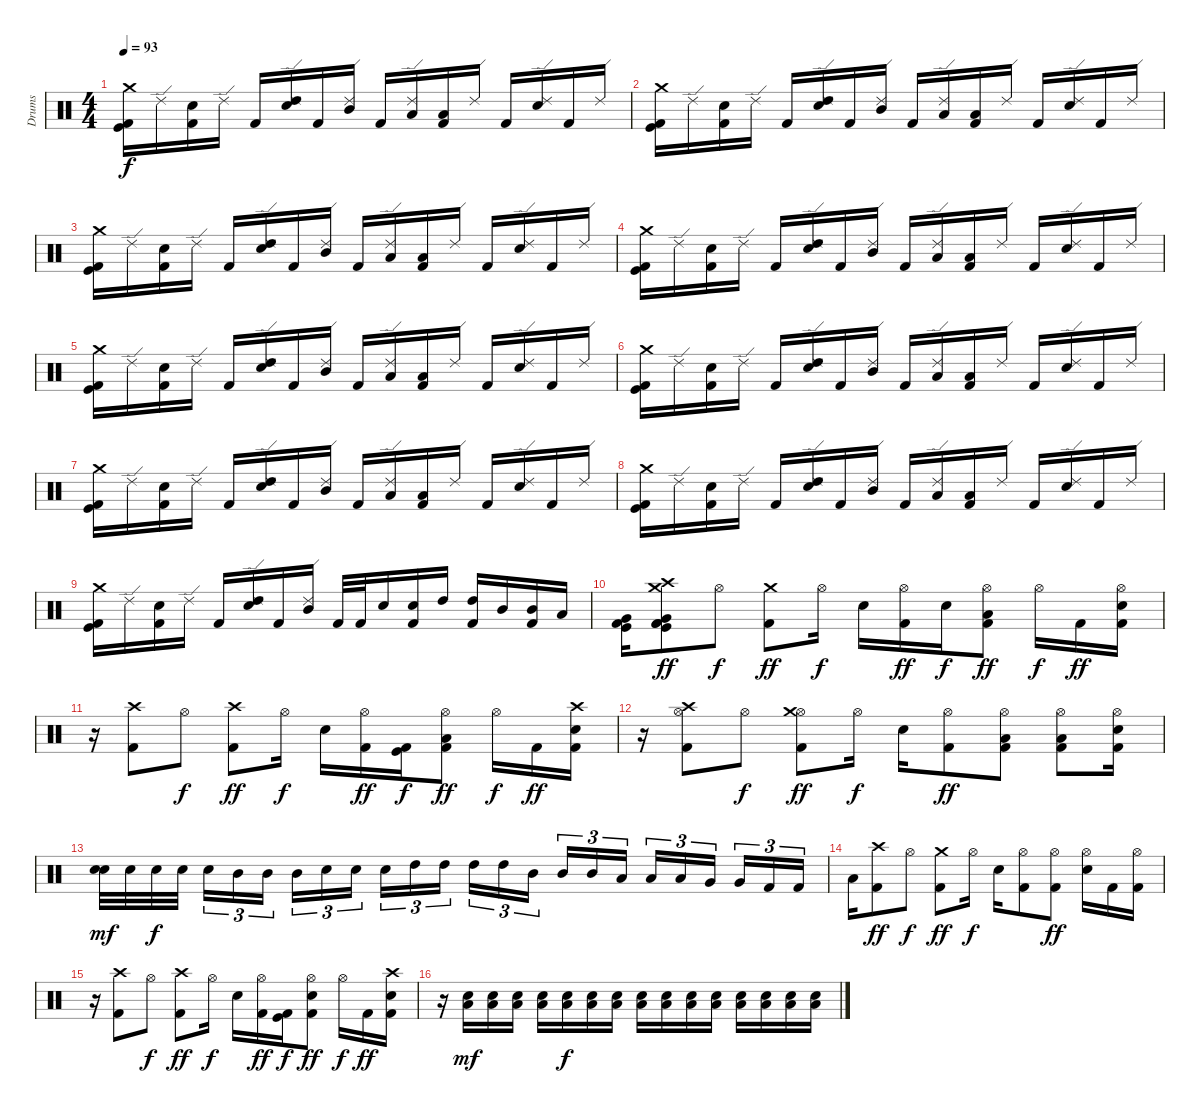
\track ("Drums" "Drums") {instrument percussion}
\staff {score}
\articulation defaults
\ts (4 4)
\tempo 93
\clef neutral
\ks c
("Kick (hit)" "Kick (hit) 2" "Crash medium (hit)").16{dy f} "Ride (edge) 2".16 ("Electric Snare (hit)" "Kick (hit) 2").16 "Ride (edge) 2".16 "Kick (hit) 2".16 ("Ride (edge) 2" "High Tom (hit)" "Electric Snare (hit)").16 "Kick (hit) 2".16 ("Ride (edge) 2" "Mid Tom (hit)").16 "Kick (hit) 2".16 ("Low Tom (hit)" "Ride (edge) 2").16 ("Kick (hit) 2" "Low Tom (hit)").16 "Ride (edge) 2".16 "Kick (hit) 2".16 ("Electric Snare (hit)" "Ride (edge) 2").16 "Kick (hit) 2".16 "Ride (edge) 2".16 |
("Kick (hit)" "Kick (hit) 2" "Crash medium (hit)").16 "Ride (edge) 2".16 ("Electric Snare (hit)" "Kick (hit) 2").16 "Ride (edge) 2".16 "Kick (hit) 2".16 ("Ride (edge) 2" "High Tom (hit)" "Electric Snare (hit)").16 "Kick (hit) 2".16 ("Ride (edge) 2" "Mid Tom (hit)").16 "Kick (hit) 2".16 ("Low Tom (hit)" "Ride (edge) 2").16 ("Kick (hit) 2" "Low Tom (hit)").16 "Ride (edge) 2".16 "Kick (hit) 2".16 ("Electric Snare (hit)" "Ride (edge) 2").16 "Kick (hit) 2".16 "Ride (edge) 2".16 |
("Kick (hit)" "Kick (hit) 2" "Crash medium (hit)").16 "Ride (edge) 2".16 ("Electric Snare (hit)" "Kick (hit) 2").16 "Ride (edge) 2".16 "Kick (hit) 2".16 ("Ride (edge) 2" "High Tom (hit)" "Electric Snare (hit)").16 "Kick (hit) 2".16 ("Ride (edge) 2" "Mid Tom (hit)").16 "Kick (hit) 2".16 ("Low Tom (hit)" "Ride (edge) 2").16 ("Kick (hit) 2" "Low Tom (hit)").16 "Ride (edge) 2".16 "Kick (hit) 2".16 ("Electric Snare (hit)" "Ride (edge) 2").16 "Kick (hit) 2".16 "Ride (edge) 2".16 |
("Kick (hit)" "Kick (hit) 2" "Crash medium (hit)").16 "Ride (edge) 2".16 ("Electric Snare (hit)" "Kick (hit) 2").16 "Ride (edge) 2".16 "Kick (hit) 2".16 ("Ride (edge) 2" "High Tom (hit)" "Electric Snare (hit)").16 "Kick (hit) 2".16 ("Ride (edge) 2" "Mid Tom (hit)").16 "Kick (hit) 2".16 ("Low Tom (hit)" "Ride (edge) 2").16 ("Kick (hit) 2" "Low Tom (hit)").16 "Ride (edge) 2".16 "Kick (hit) 2".16 ("Electric Snare (hit)" "Ride (edge) 2").16 "Kick (hit) 2".16 "Ride (edge) 2".16 |
("Kick (hit)" "Kick (hit) 2" "Crash medium (hit)").16 "Ride (edge) 2".16 ("Electric Snare (hit)" "Kick (hit) 2").16 "Ride (edge) 2".16 "Kick (hit) 2".16 ("Ride (edge) 2" "High Tom (hit)" "Electric Snare (hit)").16 "Kick (hit) 2".16 ("Ride (edge) 2" "Mid Tom (hit)").16 "Kick (hit) 2".16 ("Low Tom (hit)" "Ride (edge) 2").16 ("Kick (hit) 2" "Low Tom (hit)").16 "Ride (edge) 2".16 "Kick (hit) 2".16 ("Electric Snare (hit)" "Ride (edge) 2").16 "Kick (hit) 2".16 "Ride (edge) 2".16 |
("Kick (hit)" "Kick (hit) 2" "Crash medium (hit)").16 "Ride (edge) 2".16 ("Electric Snare (hit)" "Kick (hit) 2").16 "Ride (edge) 2".16 "Kick (hit) 2".16 ("Ride (edge) 2" "High Tom (hit)" "Electric Snare (hit)").16 "Kick (hit) 2".16 ("Ride (edge) 2" "Mid Tom (hit)").16 "Kick (hit) 2".16 ("Low Tom (hit)" "Ride (edge) 2").16 ("Kick (hit) 2" "Low Tom (hit)").16 "Ride (edge) 2".16 "Kick (hit) 2".16 ("Electric Snare (hit)" "Ride (edge) 2").16 "Kick (hit) 2".16 "Ride (edge) 2".16 |
("Kick (hit)" "Kick (hit) 2" "Crash medium (hit)").16 "Ride (edge) 2".16 ("Electric Snare (hit)" "Kick (hit) 2").16 "Ride (edge) 2".16 "Kick (hit) 2".16 ("Ride (edge) 2" "High Tom (hit)" "Electric Snare (hit)").16 "Kick (hit) 2".16 ("Ride (edge) 2" "Mid Tom (hit)").16 "Kick (hit) 2".16 ("Low Tom (hit)" "Ride (edge) 2").16 ("Kick (hit) 2" "Low Tom (hit)").16 "Ride (edge) 2".16 "Kick (hit) 2".16 ("Electric Snare (hit)" "Ride (edge) 2").16 "Kick (hit) 2".16 "Ride (edge) 2".16 |
("Kick (hit)" "Kick (hit) 2" "Crash medium (hit)").16 "Ride (edge) 2".16 ("Electric Snare (hit)" "Kick (hit) 2").16 "Ride (edge) 2".16 "Kick (hit) 2".16 ("Ride (edge) 2" "High Tom (hit)" "Electric Snare (hit)").16 "Kick (hit) 2".16 ("Ride (edge) 2" "Mid Tom (hit)").16 "Kick (hit) 2".16 ("Low Tom (hit)" "Ride (edge) 2").16 ("Kick (hit) 2" "Low Tom (hit)").16 "Ride (edge) 2".16 "Kick (hit) 2".16 ("Electric Snare (hit)" "Ride (edge) 2").16 "Kick (hit) 2".16 "Ride (edge) 2".16 |
("Kick (hit)" "Kick (hit) 2" "Crash medium (hit)").16 "Ride (edge) 2".16 ("Electric Snare (hit)" "Kick (hit) 2").16 "Ride (edge) 2".16 "Kick (hit) 2".16 ("Ride (edge) 2" "High Tom (hit)" "Electric Snare (hit)").16 "Kick (hit) 2".16 ("Ride (edge) 2" "Mid Tom (hit)").16 "Kick (hit) 2".32 "Kick (hit) 2".32 "Electric Snare (hit)".16 ("Electric Snare (hit)" "Kick (hit) 2").16 "High Tom (hit)".16 ("High Tom (hit)" "Kick (hit) 2").16 "Mid Tom (hit)".16 ("Mid Tom (hit)" "Kick (hit) 2").16 "Low Tom (hit)".16 |
("Kick (hit)" "Kick (hit) 2" "Very Low Tom (hit)").16 ("Very Low Tom (hit)" "Kick (hit)" "Kick (hit) 2" "Crash medium (hit)" "Crash high (hit)" "Kick (hit) 2").8{dy ff} "Hi-Hat (open)".8{dy f} ("Crash medium (hit)" "Kick (hit) 2").8{dy ff} "Hi-Hat (open)".16{dy f} "Electric Snare (hit)".16 ("Kick (hit) 2" "Hi-Hat (open)").16{dy ff} "Snare (hit) 2".16{dy f} ("Hi-Hat (open)" "Low Tom (hit)" "Kick (hit) 2").8{dy ff} "Hi-Hat (open)".16{dy f} "Kick (hit) 2".16{dy ff} ("Kick (hit) 2" "Hi-Hat (open)" "Electric Snare (hit)").16 |
r.16 ("Kick (hit) 2" "Crash high (hit)").8 "Hi-Hat (open)".8{dy f} ("Kick (hit) 2" "Crash high (hit)").8{dy ff} "Hi-Hat (open)".16{dy f} "Electric Snare (hit)".16 ("Kick (hit) 2" "Hi-Hat (open)").16{dy ff} ("Kick (hit)" "Kick (hit) 2").16{dy f} ("Low Floor Tom (hit)" "Kick (hit) 2" "Hi-Hat (open)").8{dy ff} "Hi-Hat (open)".16{dy f} "Kick (hit) 2".16{dy ff} ("Kick (hit) 2" "Crash high (hit)" "Electric Snare (hit)").16 |
r.16 ("Crash high (hit)" "Kick (hit) 2" "Hi-Hat (open)").8 "Hi-Hat (open)".8{dy f} ("Hi-Hat (open)" "Crash medium (hit)" "Kick (hit) 2").8{dy ff} "Hi-Hat (open)".16{dy f} "Electric Snare (hit)".16 ("Kick (hit) 2" "Hi-Hat (open)").8{dy ff} ("Hi-Hat (open)" "Low Tom (hit)" "Kick (hit) 2").8 ("Hi-Hat (open)" "Low Floor Tom (hit)" "Kick (hit) 2").8 ("Kick (hit) 2" "Hi-Hat (open)" "Electric Snare (hit)").16 |
("Electric Snare (hit)" "Electric Snare (hit)").32{dy mf} "Electric Snare (hit)".32 "Electric Snare (hit)".32{dy f} "Electric Snare (hit)".32 "Electric Snare (hit)".16{tu (3 2)} "Mid Tom (hit)".16{tu (3 2)} "Mid Tom (hit)".16{tu (3 2)} "Mid Tom (hit)".16{tu (3 2)} "Electric Snare (hit)".16{tu (3 2)} "Electric Snare (hit)".16{tu (3 2)} "Electric Snare (hit)".16{tu (3 2)} "High Tom (hit)".16{tu (3 2)} "High Tom (hit)".16{tu (3 2)} "High Tom (hit)".16{tu (3 2)} "High Tom (hit)".16{tu (3 2)} "Mid Tom (hit)".16{tu (3 2)} "Mid Tom (hit)".16{tu (3 2)} "Mid Tom (hit)".16{tu (3 2)} "Low Tom (hit)".16{tu (3 2)} "Low Tom (hit)".16{tu (3 2)} "Low Tom (hit)".16{tu (3 2)} "Very Low Tom (hit)".16{tu (3 2)} "Very Low Tom (hit)".16{tu (3 2)} "Kick (hit) 2".16{tu (3 2)} "Kick (hit) 2".16{tu (3 2)} |
"Low Floor Tom (hit)".16 ("Crash high (hit)" "Kick (hit) 2").8{dy ff} "Hi-Hat (open)".8{dy f} ("Crash medium (hit)" "Kick (hit) 2").8{dy ff} "Hi-Hat (open)".16{dy f} "Electric Snare (hit)".16 ("Hi-Hat (open)" "Kick (hit) 2").8 ("Hi-Hat (open)" "Kick (hit) 2").8{dy ff} ("Hi-Hat (open)" "Electric Snare (hit)").16 "Kick (hit) 2".16 ("Kick (hit) 2" "Hi-Hat (open)").16 |
r.16 ("Kick (hit) 2" "Crash high (hit)").8 "Hi-Hat (open)".8{dy f} ("Kick (hit) 2" "Crash high (hit)").8{dy ff} "Hi-Hat (open)".16{dy f} "Electric Snare (hit)".16 ("Kick (hit) 2" "Hi-Hat (open)").16{dy ff} ("Kick (hit)" "Kick (hit) 2").16{dy f} ("Electric Snare (hit)" "Kick (hit) 2" "Hi-Hat (open)").8{dy ff} "Hi-Hat (open)".16{dy f} "Kick (hit) 2".16{dy ff} ("Kick (hit) 2" "Crash high (hit)" "Electric Snare (hit)").16 |
r.16 ("Electric Snare (hit)" "Low Tom (hit)").16{dy mf} ("Electric Snare (hit)" "Low Tom (hit)").16 ("Electric Snare (hit)" "Low Tom (hit)").16 ("Electric Snare (hit)" "Low Tom (hit)").16 ("Electric Snare (hit)" "Low Tom (hit)").16{dy f} ("Electric Snare (hit)" "Low Tom (hit)").16 ("Electric Snare (hit)" "Low Tom (hit)").16 ("Electric Snare (hit)" "Low Tom (hit)").16 ("Electric Snare (hit)" "Low Tom (hit)").16 ("Electric Snare (hit)" "Low Tom (hit)").16 ("Electric Snare (hit)" "Low Tom (hit)").16 ("Electric Snare (hit)" "Low Tom (hit)").16 ("Electric Snare (hit)" "Low Tom (hit)").16 ("Electric Snare (hit)" "Low Tom (hit)").16 ("Electric Snare (hit)" "Low Tom (hit)").16
